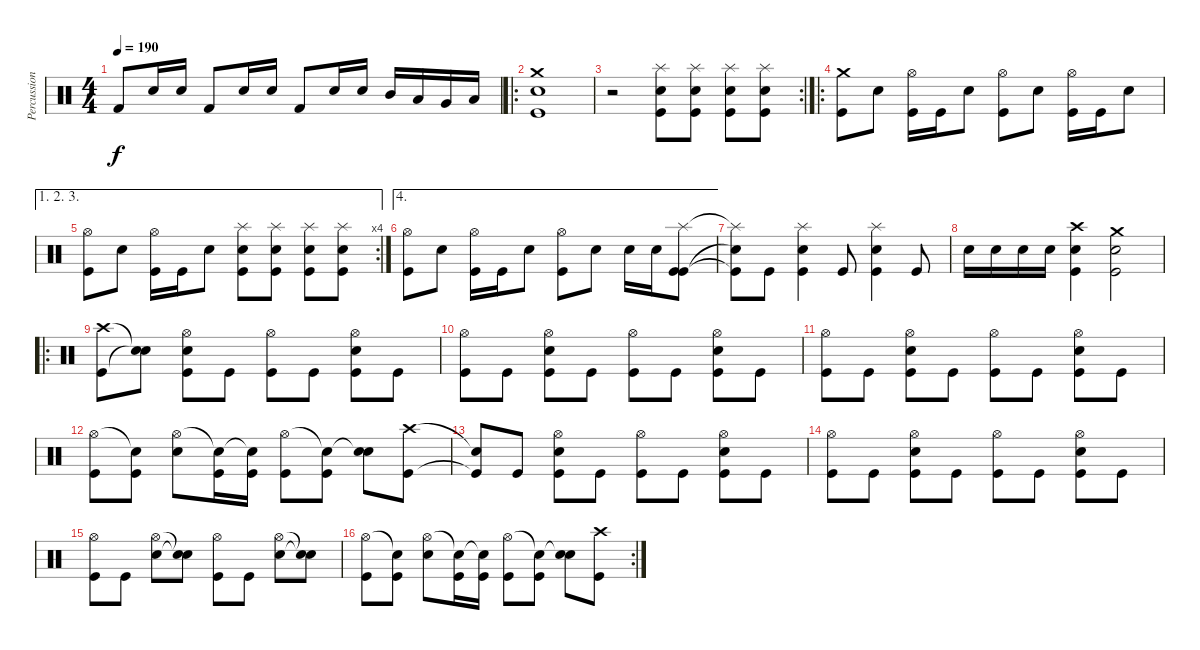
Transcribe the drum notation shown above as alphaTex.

\track ("Percussion" "Percussion") {instrument percussion}
\staff {score}
\articulation defaults
\ts (4 4)
\tempo 190
\clef neutral
\ks c "Kick (hit) 2".8{dy f} "Electric Snare (hit)".16 "Electric Snare (hit)".16 "Kick (hit) 2".8 "Electric Snare (hit)".16 "Electric Snare (hit)".16 "Kick (hit) 2".8 "Electric Snare (hit)".16 "Electric Snare (hit)".16 "Mid Tom (hit)".16 "Low Tom (hit)".16 "Very Low Tom (hit)".16 "Low Floor Tom (hit)".16
|
\ro
("Crash medium (hit)" "Snare (hit) 2" "Kick (hit)").1 |
\rc 2
r.2 ("Splash (hit)" "Snare (hit) 2" "Kick (hit)").8 ("Splash (hit)" "Snare (hit) 2" "Kick (hit)").8 ("Splash (hit)" "Snare (hit) 2" "Kick (hit)").8 ("Splash (hit)" "Snare (hit) 2" "Kick (hit)").8 |
\ro
("Crash medium (hit)" "Kick (hit)").8 "Snare (hit) 2".8 ("Hi-Hat (open)" "Kick (hit)").16 "Kick (hit)".16 "Snare (hit) 2".8 ("Hi-Hat (open)" "Kick (hit)").8 "Snare (hit) 2".8 ("Hi-Hat (open)" "Kick (hit)").16 "Kick (hit)".16 "Snare (hit) 2".8 |
\ae (1 2 3)
\rc 4
("Hi-Hat (open)" "Kick (hit)").8 "Snare (hit) 2".8 ("Hi-Hat (open)" "Kick (hit)").16 "Kick (hit)".16 "Snare (hit) 2".8 ("Splash (hit)" "Snare (hit) 2" "Kick (hit)").8 ("Splash (hit)" "Snare (hit) 2" "Kick (hit)").8 ("Splash (hit)" "Snare (hit) 2" "Kick (hit)").8 ("Splash (hit)" "Snare (hit) 2" "Kick (hit)").8 |
\ae 4
("Hi-Hat (open)" "Kick (hit)").8 "Snare (hit) 2".8 ("Hi-Hat (open)" "Kick (hit)").16 "Kick (hit)".16 "Snare (hit) 2".8 ("Hi-Hat (open)" "Kick (hit)").8 "Snare (hit) 2".8 "Snare (hit) 2".16 "Snare (hit) 2".16 ("Splash (hit)" "Kick (hit)" "Kick (hit)").8 |
("Splash (hit)"{t} "Snare (hit) 2"{t} "Kick (hit)"{t}).8 "Kick (hit)".8 ("Splash (hit)" "Snare (hit) 2" "Kick (hit)").4 "Kick (hit)".8 ("Splash (hit)" "Snare (hit) 2" "Kick (hit)").4 "Kick (hit)".8 |
"Snare (hit) 2".16 "Snare (hit) 2".16 "Snare (hit) 2".16 "Snare (hit) 2".16 ("Crash high (hit)" "Snare (hit) 2" "Kick (hit)").4 ("Crash medium (hit)" "Snare (hit) 2" "Kick (hit)").2 |
\ro
("Crash high (hit)" "Kick (hit)").8 ("Snare (hit)"{t} "Snare (hit)"{t}).8 ("Hi-Hat (open)" "Snare (hit) 2" "Kick (hit)").8 "Kick (hit)".8 ("Hi-Hat (open)" "Kick (hit)").8 "Kick (hit)".8 ("Hi-Hat (open)" "Snare (hit) 2" "Kick (hit)").8 "Kick (hit)".8 |
("Hi-Hat (open)" "Kick (hit)").8 "Kick (hit)".8 ("Hi-Hat (open)" "Snare (hit) 2" "Kick (hit)").8 "Kick (hit)".8 ("Hi-Hat (open)" "Kick (hit)").8 "Kick (hit)".8 ("Hi-Hat (open)" "Snare (hit) 2" "Kick (hit)").8 "Kick (hit)".8 |
("Hi-Hat (open)" "Kick (hit)").8 "Kick (hit)".8 ("Hi-Hat (open)" "Snare (hit) 2" "Kick (hit)").8 "Kick (hit)".8 ("Hi-Hat (open)" "Kick (hit)").8 "Kick (hit)".8 ("Hi-Hat (open)" "Snare (hit) 2" "Kick (hit)").8 "Kick (hit)".8 |
("Hi-Hat (open)" "Kick (hit)").8 ("Snare (hit)"{t} "Kick (hit)").8 ("Hi-Hat (open)" "Snare (hit) 2").8 ("Snare (hit)"{t} "Kick (hit)").16 ("Snare (hit)"{t} "Kick (hit)").16 ("Hi-Hat (open)" "Kick (hit)").8 ("Snare (hit)"{t} "Kick (hit)").8 ("Snare (hit)"{t} "Snare (hit) 2").8 ("Crash high (hit)" "Kick (hit)").8 |
("Snare (hit)"{t} "Kick (hit)"{t}).8 "Kick (hit)".8 ("Hi-Hat (open)" "Snare (hit) 2" "Kick (hit)").8 "Kick (hit)".8 ("Hi-Hat (open)" "Kick (hit)").8 "Kick (hit)".8 ("Hi-Hat (open)" "Snare (hit) 2" "Kick (hit)").8 "Kick (hit)".8 |
("Hi-Hat (open)" "Kick (hit)").8 "Kick (hit)".8 ("Hi-Hat (open)" "Snare (hit) 2" "Kick (hit)").8 "Kick (hit)".8 ("Hi-Hat (open)" "Kick (hit)").8 "Kick (hit)".8 ("Hi-Hat (open)" "Snare (hit) 2" "Kick (hit)").8 "Kick (hit)".8 |
("Hi-Hat (open)" "Kick (hit)").8 "Kick (hit)".8 ("Hi-Hat (open)" "Snare (hit) 2").8 ("Snare (hit)"{t} "Snare (hit)"{t}).8 ("Hi-Hat (open)" "Kick (hit)").8 "Kick (hit)".8 ("Hi-Hat (open)" "Snare (hit) 2").8 ("Snare (hit)"{t} "Snare (hit)"{t}).8 |
\rc 2
("Hi-Hat (open)" "Kick (hit)").8 ("Snare (hit)"{t} "Kick (hit)").8 ("Hi-Hat (open)" "Snare (hit) 2").8 ("Snare (hit)"{t} "Kick (hit)").16 ("Snare (hit)"{t} "Kick (hit)").16 ("Hi-Hat (open)" "Kick (hit)").8 ("Snare (hit)"{t} "Kick (hit)").8 ("Snare (hit)"{t} "Snare (hit) 2").8 ("Crash high (hit)" "Kick (hit)").8
